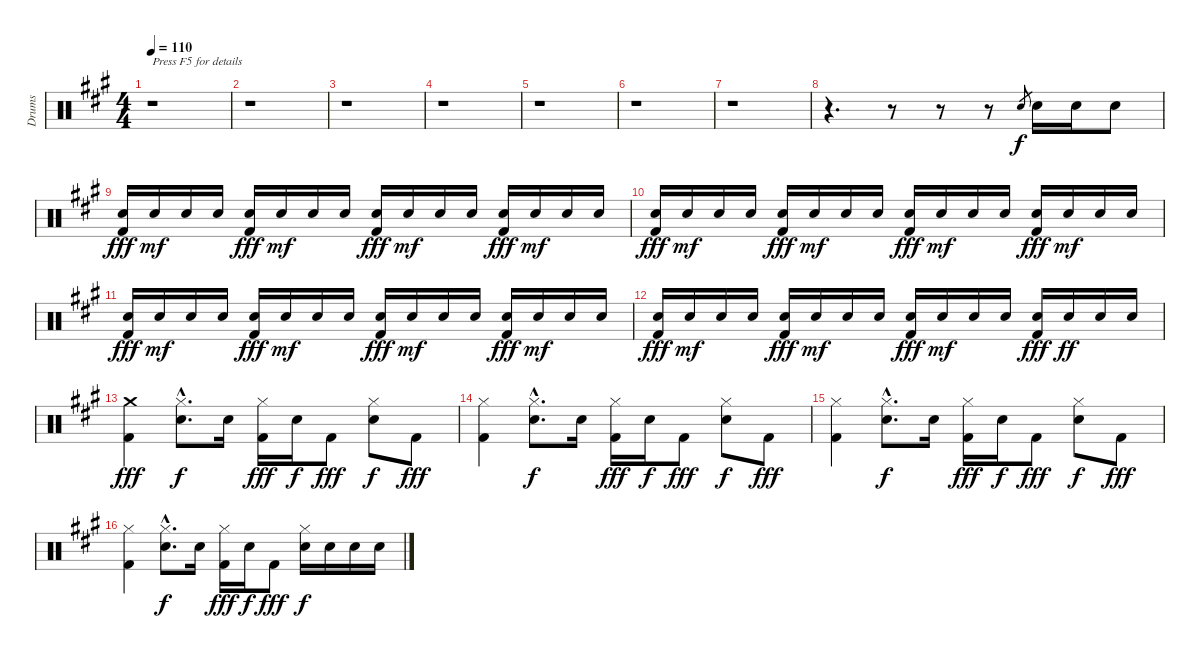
\track ("Drums" "Drums") {instrument percussion}
\staff {score}
\articulation defaults
\ts (4 4)
\tempo 110
\clef neutral
\ks a
r.1{txt "Press F5 for details" dy f} |
r.1 |
r.1 |
r.1 |
r.1 |
r.1 |
r.1 |
r.4{d} r.8 r.8 r.8 "Electric Snare (hit)".8{gr} "Electric Snare (hit)".16 "Electric Snare (hit)".16 "Electric Snare (hit)".8 |
("Electric Snare (hit)" "Kick (hit) 2").16{dy fff} "Electric Snare (hit)".16{dy mf} "Electric Snare (hit)".16 "Electric Snare (hit)".16 ("Electric Snare (hit)" "Kick (hit) 2").16{dy fff} "Electric Snare (hit)".16{dy mf} "Electric Snare (hit)".16 "Electric Snare (hit)".16 ("Electric Snare (hit)" "Kick (hit) 2").16{dy fff} "Electric Snare (hit)".16{dy mf} "Electric Snare (hit)".16 "Electric Snare (hit)".16 ("Electric Snare (hit)" "Kick (hit) 2").16{dy fff} "Electric Snare (hit)".16{dy mf} "Electric Snare (hit)".16 "Electric Snare (hit)".16 |
("Electric Snare (hit)" "Kick (hit) 2").16{dy fff} "Electric Snare (hit)".16{dy mf} "Electric Snare (hit)".16 "Electric Snare (hit)".16 ("Electric Snare (hit)" "Kick (hit) 2").16{dy fff} "Electric Snare (hit)".16{dy mf} "Electric Snare (hit)".16 "Electric Snare (hit)".16 ("Electric Snare (hit)" "Kick (hit) 2").16{dy fff} "Electric Snare (hit)".16{dy mf} "Electric Snare (hit)".16 "Electric Snare (hit)".16 ("Electric Snare (hit)" "Kick (hit) 2").16{dy fff} "Electric Snare (hit)".16{dy mf} "Electric Snare (hit)".16 "Electric Snare (hit)".16 |
("Electric Snare (hit)" "Kick (hit) 2").16{dy fff} "Electric Snare (hit)".16{dy mf} "Electric Snare (hit)".16 "Electric Snare (hit)".16 ("Electric Snare (hit)" "Kick (hit) 2").16{dy fff} "Electric Snare (hit)".16{dy mf} "Electric Snare (hit)".16 "Electric Snare (hit)".16 ("Electric Snare (hit)" "Kick (hit) 2").16{dy fff} "Electric Snare (hit)".16{dy mf} "Electric Snare (hit)".16 "Electric Snare (hit)".16 ("Electric Snare (hit)" "Kick (hit) 2").16{dy fff} "Electric Snare (hit)".16{dy mf} "Electric Snare (hit)".16 "Electric Snare (hit)".16 |
("Electric Snare (hit)" "Kick (hit) 2").16{dy fff} "Electric Snare (hit)".16{dy mf} "Electric Snare (hit)".16 "Electric Snare (hit)".16 ("Electric Snare (hit)" "Kick (hit) 2").16{dy fff} "Electric Snare (hit)".16{dy mf} "Electric Snare (hit)".16 "Electric Snare (hit)".16 ("Electric Snare (hit)" "Kick (hit) 2").16{dy fff} "Electric Snare (hit)".16{dy mf} "Electric Snare (hit)".16 "Electric Snare (hit)".16 ("Electric Snare (hit)" "Kick (hit) 2").16{dy fff} "Electric Snare (hit)".16{dy ff} "Electric Snare (hit)".16 "Electric Snare (hit)".16 |
("Crash medium (hit)" "Kick (hit) 2").4{dy fff volume 16} ("Hi-Hat (closed)"{hac} "Electric Snare (hit)"{hac}).8{d dy f} "Electric Snare (hit)".16 ("Hi-Hat (closed)" "Kick (hit) 2").16{dy fff} "Electric Snare (hit)".16{dy f} "Kick (hit) 2".8{dy fff} ("Hi-Hat (closed)" "Electric Snare (hit)").8{dy f} "Kick (hit) 2".8{dy fff} |
("Hi-Hat (closed)" "Kick (hit) 2").4 ("Hi-Hat (closed)"{hac} "Electric Snare (hit)"{hac}).8{d dy f} "Electric Snare (hit)".16 ("Hi-Hat (closed)" "Kick (hit) 2").16{dy fff} "Electric Snare (hit)".16{dy f} "Kick (hit) 2".8{dy fff} ("Hi-Hat (closed)" "Electric Snare (hit)").8{dy f} "Kick (hit) 2".8{dy fff} |
("Hi-Hat (closed)" "Kick (hit) 2").4 ("Hi-Hat (closed)"{hac} "Electric Snare (hit)"{hac}).8{d dy f} "Electric Snare (hit)".16 ("Hi-Hat (closed)" "Kick (hit) 2").16{dy fff} "Electric Snare (hit)".16{dy f} "Kick (hit) 2".8{dy fff} ("Hi-Hat (closed)" "Electric Snare (hit)").8{dy f} "Kick (hit) 2".8{dy fff} |
("Hi-Hat (closed)" "Kick (hit) 2").4 ("Hi-Hat (closed)"{hac} "Electric Snare (hit)"{hac}).8{d dy f} "Electric Snare (hit)".16 ("Hi-Hat (closed)" "Kick (hit) 2").16{dy fff} "Electric Snare (hit)".16{dy f} "Kick (hit) 2".8{dy fff} ("Hi-Hat (closed)" "Electric Snare (hit)").16{dy f} "Electric Snare (hit)".16 "Electric Snare (hit)".16 "Electric Snare (hit)".16
